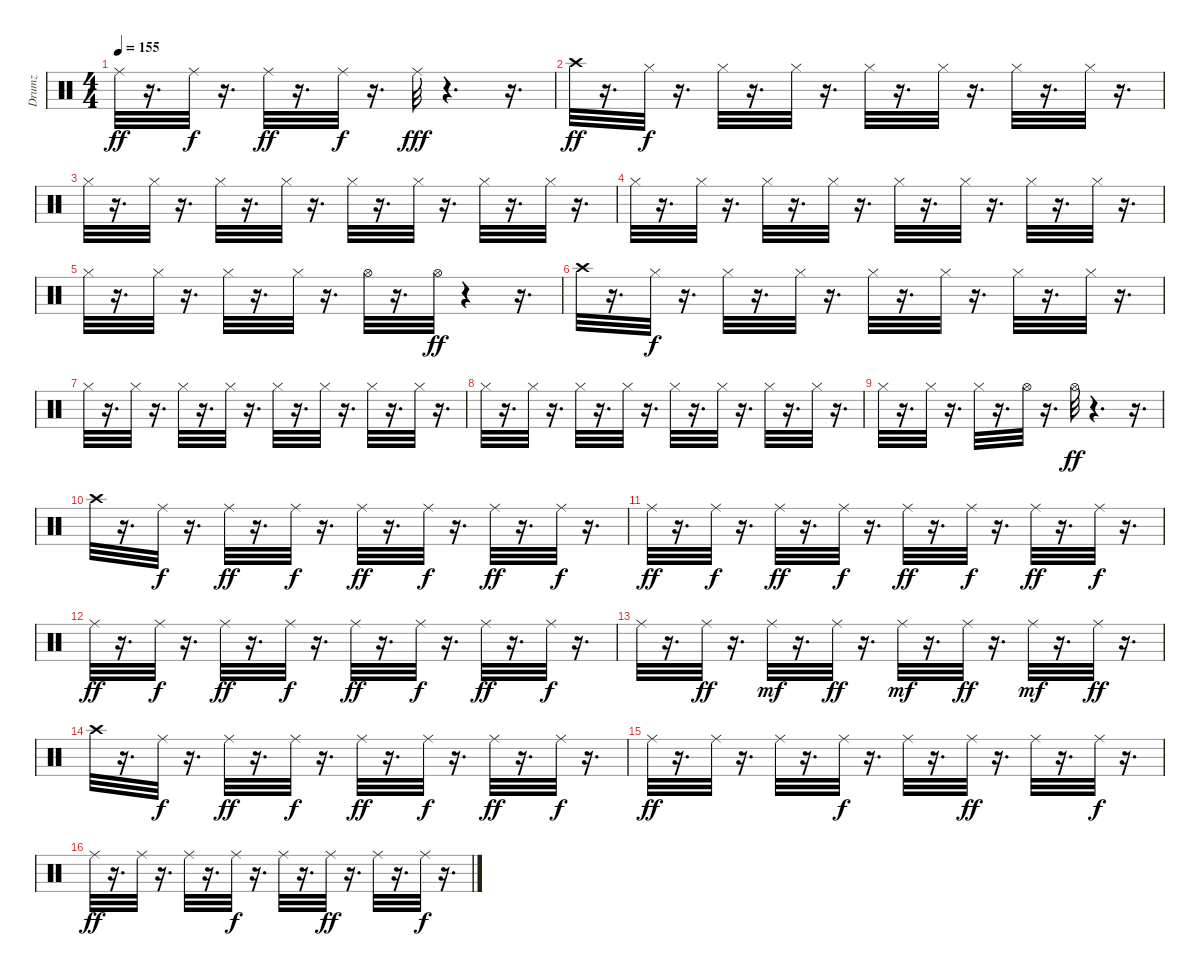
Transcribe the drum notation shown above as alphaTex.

\track ("Drumz" "Drumz") {instrument percussion}
\staff {score}
\articulation defaults
\ts (4 4)
\tempo 155
\clef neutral
\ks c "Ride (middle)".32{dy ff}
r.16{d} "Ride (middle)".32{dy f} r.16{d} "Ride (middle)".32{dy ff} r.16{d} "Ride (middle)".32{dy f} r.16{d} "Ride (middle)".32{dy fff} r.4{d} r.16{d} |
"Crash high (hit)".32{dy ff} r.16{d} "Hi-Hat (closed)".32{dy f} r.16{d} "Hi-Hat (closed)".32 r.16{d} "Hi-Hat (closed)".32 r.16{d} "Hi-Hat (closed)".32 r.16{d} "Hi-Hat (closed)".32 r.16{d} "Hi-Hat (closed)".32 r.16{d} "Hi-Hat (closed)".32 r.16{d} |
"Hi-Hat (closed)".32 r.16{d} "Hi-Hat (closed)".32 r.16{d} "Hi-Hat (closed)".32 r.16{d} "Hi-Hat (closed)".32 r.16{d} "Hi-Hat (closed)".32 r.16{d} "Hi-Hat (closed)".32 r.16{d} "Hi-Hat (closed)".32 r.16{d} "Hi-Hat (closed)".32 r.16{d} |
"Hi-Hat (closed)".32 r.16{d} "Hi-Hat (closed)".32 r.16{d} "Hi-Hat (closed)".32 r.16{d} "Hi-Hat (closed)".32 r.16{d} "Hi-Hat (closed)".32 r.16{d} "Hi-Hat (closed)".32 r.16{d} "Hi-Hat (closed)".32 r.16{d} "Hi-Hat (closed)".32 r.16{d} |
"Hi-Hat (closed)".32 r.16{d} "Hi-Hat (closed)".32 r.16{d} "Hi-Hat (closed)".32 r.16{d} "Hi-Hat (closed)".32 r.16{d} "Hi-Hat (open)".32 r.16{d} "Hi-Hat (open)".32{dy ff} r.4 r.16{d} |
"Crash high (hit)".32 r.16{d} "Hi-Hat (closed)".32{dy f} r.16{d} "Hi-Hat (closed)".32 r.16{d} "Hi-Hat (closed)".32 r.16{d} "Hi-Hat (closed)".32 r.16{d} "Hi-Hat (closed)".32 r.16{d} "Hi-Hat (closed)".32 r.16{d} "Hi-Hat (closed)".32 r.16{d} |
"Hi-Hat (closed)".32 r.16{d} "Hi-Hat (closed)".32 r.16{d} "Hi-Hat (closed)".32 r.16{d} "Hi-Hat (closed)".32 r.16{d} "Hi-Hat (closed)".32 r.16{d} "Hi-Hat (closed)".32 r.16{d} "Hi-Hat (closed)".32 r.16{d} "Hi-Hat (closed)".32 r.16{d} |
"Hi-Hat (closed)".32 r.16{d} "Hi-Hat (closed)".32 r.16{d} "Hi-Hat (closed)".32 r.16{d} "Hi-Hat (closed)".32 r.16{d} "Hi-Hat (closed)".32 r.16{d} "Hi-Hat (closed)".32 r.16{d} "Hi-Hat (closed)".32 r.16{d} "Hi-Hat (closed)".32 r.16{d} |
"Hi-Hat (closed)".32 r.16{d} "Hi-Hat (closed)".32 r.16{d} "Hi-Hat (closed)".32 r.16{d} "Hi-Hat (open)".32 r.16{d} "Hi-Hat (open)".32{dy ff} r.4{d} r.16{d} |
"Crash high (hit)".32 r.16{d} "Ride (middle)".32{dy f} r.16{d} "Ride (middle)".32{dy ff} r.16{d} "Ride (middle)".32{dy f} r.16{d} "Ride (middle)".32{dy ff} r.16{d} "Ride (middle)".32{dy f} r.16{d} "Ride (middle)".32{dy ff} r.16{d} "Ride (middle)".32{dy f} r.16{d} |
"Ride (middle)".32{dy ff} r.16{d} "Ride (middle)".32{dy f} r.16{d} "Ride (middle)".32{dy ff} r.16{d} "Ride (middle)".32{dy f} r.16{d} "Ride (middle)".32{dy ff} r.16{d} "Ride (middle)".32{dy f} r.16{d} "Ride (middle)".32{dy ff} r.16{d} "Ride (middle)".32{dy f} r.16{d} |
"Ride (middle)".32{dy ff} r.16{d} "Ride (middle)".32{dy f} r.16{d} "Ride (middle)".32{dy ff} r.16{d} "Ride (middle)".32{dy f} r.16{d} "Ride (middle)".32{dy ff} r.16{d} "Ride (middle)".32{dy f} r.16{d} "Ride (middle)".32{dy ff} r.16{d} "Ride (middle)".32{dy f} r.16{d} |
"Ride (middle)".32 r.16{d} "Ride (middle)".32{dy ff} r.16{d} "Ride (middle)".32{dy mf} r.16{d} "Ride (middle)".32{dy ff} r.16{d} "Ride (middle)".32{dy mf} r.16{d} "Ride (middle)".32{dy ff} r.16{d} "Ride (middle)".32{dy mf} r.16{d} "Ride (middle)".32{dy ff} r.16{d} |
"Crash high (hit)".32 r.16{d} "Ride (middle)".32{dy f} r.16{d} "Ride (middle)".32{dy ff} r.16{d} "Ride (middle)".32{dy f} r.16{d} "Ride (middle)".32{dy ff} r.16{d} "Ride (middle)".32{dy f} r.16{d} "Ride (middle)".32{dy ff} r.16{d} "Ride (middle)".32{dy f} r.16{d} |
"Ride (middle)".32{dy ff} r.16{d} "Ride (middle)".32 r.16{d} "Ride (middle)".32 r.16{d} "Ride (middle)".32{dy f} r.16{d} "Ride (middle)".32 r.16{d} "Ride (middle)".32{dy ff} r.16{d} "Ride (middle)".32 r.16{d} "Ride (middle)".32{dy f} r.16{d} |
"Ride (middle)".32{dy ff} r.16{d} "Ride (middle)".32 r.16{d} "Ride (middle)".32 r.16{d} "Ride (middle)".32{dy f} r.16{d} "Ride (middle)".32 r.16{d} "Ride (middle)".32{dy ff} r.16{d} "Ride (middle)".32 r.16{d} "Ride (middle)".32{dy f} r.16{d}
